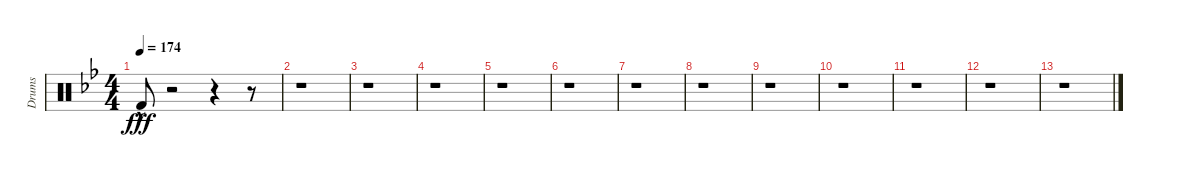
\track ("Drums" "Drums") {instrument percussion}
\staff {score}
\articulation defaults
\ts (4 4)
\tempo 174
\clef neutral
\ks gminor "Kick (hit) 2"{hac}.8{dy fff}
r.2 r.4 r.8 |
r.1 |
r.1 |
r.1 |
r.1 |
r.1 |
r.1 |
r.1 |
r.1 |
r.1 |
r.1 |
r.1 |
r.1
